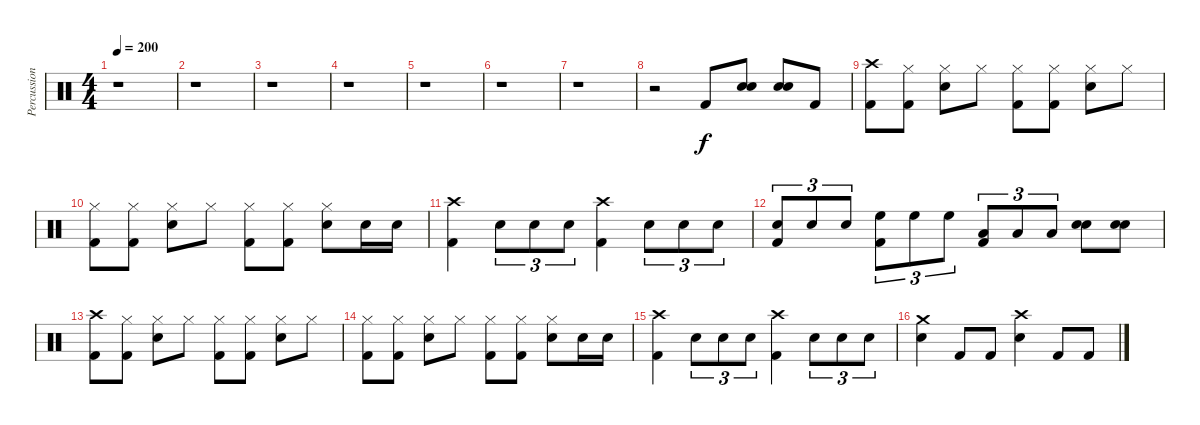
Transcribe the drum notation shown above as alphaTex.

\track ("Percussion" "Percussion") {instrument percussion}
\staff {score}
\articulation defaults
\ts (4 4)
\tempo 200
\clef neutral
\ks c
r.1{dy f} |
r.1 |
r.1 |
r.1 |
r.1 |
r.1 |
r.1 |
r.2 "Kick (hit) 2".8 ("Snare (hit) 2" "Snare (hit) 2").8 ("Snare (hit) 2" "Snare (hit) 2").8 "Kick (hit) 2".8 |
("Crash high (hit)" "Kick (hit) 2").8 ("Hi-Hat (closed)" "Kick (hit) 2").8 ("Hi-Hat (closed)" "Snare (hit) 2").8 "Hi-Hat (closed)".8 ("Hi-Hat (closed)" "Kick (hit) 2").8 ("Hi-Hat (closed)" "Kick (hit) 2").8 ("Hi-Hat (closed)" "Snare (hit) 2").8 "Hi-Hat (closed)".8 |
("Hi-Hat (closed)" "Kick (hit) 2").8 ("Hi-Hat (closed)" "Kick (hit) 2").8 ("Hi-Hat (closed)" "Snare (hit) 2").8 "Hi-Hat (closed)".8 ("Hi-Hat (closed)" "Kick (hit) 2").8 ("Hi-Hat (closed)" "Kick (hit) 2").8 ("Hi-Hat (closed)" "Snare (hit) 2").8 "Snare (hit) 2".16 "Snare (hit) 2".16 |
("Crash high (hit)" "Kick (hit) 2").4 "Snare (hit) 2".8{tu (3 2)} "Snare (hit) 2".8{tu (3 2)} "Snare (hit) 2".8{tu (3 2)} ("Crash high (hit)" "Kick (hit) 2").4 "Snare (hit) 2".8{tu (3 2)} "Snare (hit) 2".8{tu (3 2)} "Snare (hit) 2".8{tu (3 2)} |
("Snare (hit) 2" "Kick (hit) 2").8{tu (3 2)} "Snare (hit) 2".8{tu (3 2)} "Snare (hit) 2".8{tu (3 2)} ("High Floor Tom (hit)" "Kick (hit) 2").8{tu (3 2)} "High Floor Tom (hit)".8{tu (3 2)} "High Floor Tom (hit)".8{tu (3 2)} ("Low Tom (hit)" "Kick (hit) 2").8{tu (3 2)} "Low Tom (hit)".8{tu (3 2)} "Low Tom (hit)".8{tu (3 2)} ("Snare (hit) 2" "Snare (hit) 2").8 ("Snare (hit) 2" "Snare (hit) 2").8 |
("Crash high (hit)" "Kick (hit) 2").8 ("Hi-Hat (closed)" "Kick (hit) 2").8 ("Hi-Hat (closed)" "Snare (hit) 2").8 "Hi-Hat (closed)".8 ("Hi-Hat (closed)" "Kick (hit) 2").8 ("Hi-Hat (closed)" "Kick (hit) 2").8 ("Hi-Hat (closed)" "Snare (hit) 2").8 "Hi-Hat (closed)".8 |
("Hi-Hat (closed)" "Kick (hit) 2").8 ("Hi-Hat (closed)" "Kick (hit) 2").8 ("Hi-Hat (closed)" "Snare (hit) 2").8 "Hi-Hat (closed)".8 ("Hi-Hat (closed)" "Kick (hit) 2").8 ("Hi-Hat (closed)" "Kick (hit) 2").8 ("Hi-Hat (closed)" "Snare (hit) 2").8 "Snare (hit) 2".16 "Snare (hit) 2".16 |
("Crash high (hit)" "Kick (hit) 2").4 "Snare (hit) 2".8{tu (3 2)} "Snare (hit) 2".8{tu (3 2)} "Snare (hit) 2".8{tu (3 2)} ("Crash high (hit)" "Kick (hit) 2").4 "Snare (hit) 2".8{tu (3 2)} "Snare (hit) 2".8{tu (3 2)} "Snare (hit) 2".8{tu (3 2)} |
("Crash medium (hit)" "Snare (hit) 2").4 "Kick (hit) 2".8 "Kick (hit) 2".8 ("Crash high (hit)" "Snare (hit) 2").4 "Kick (hit) 2".8 "Kick (hit) 2".8
